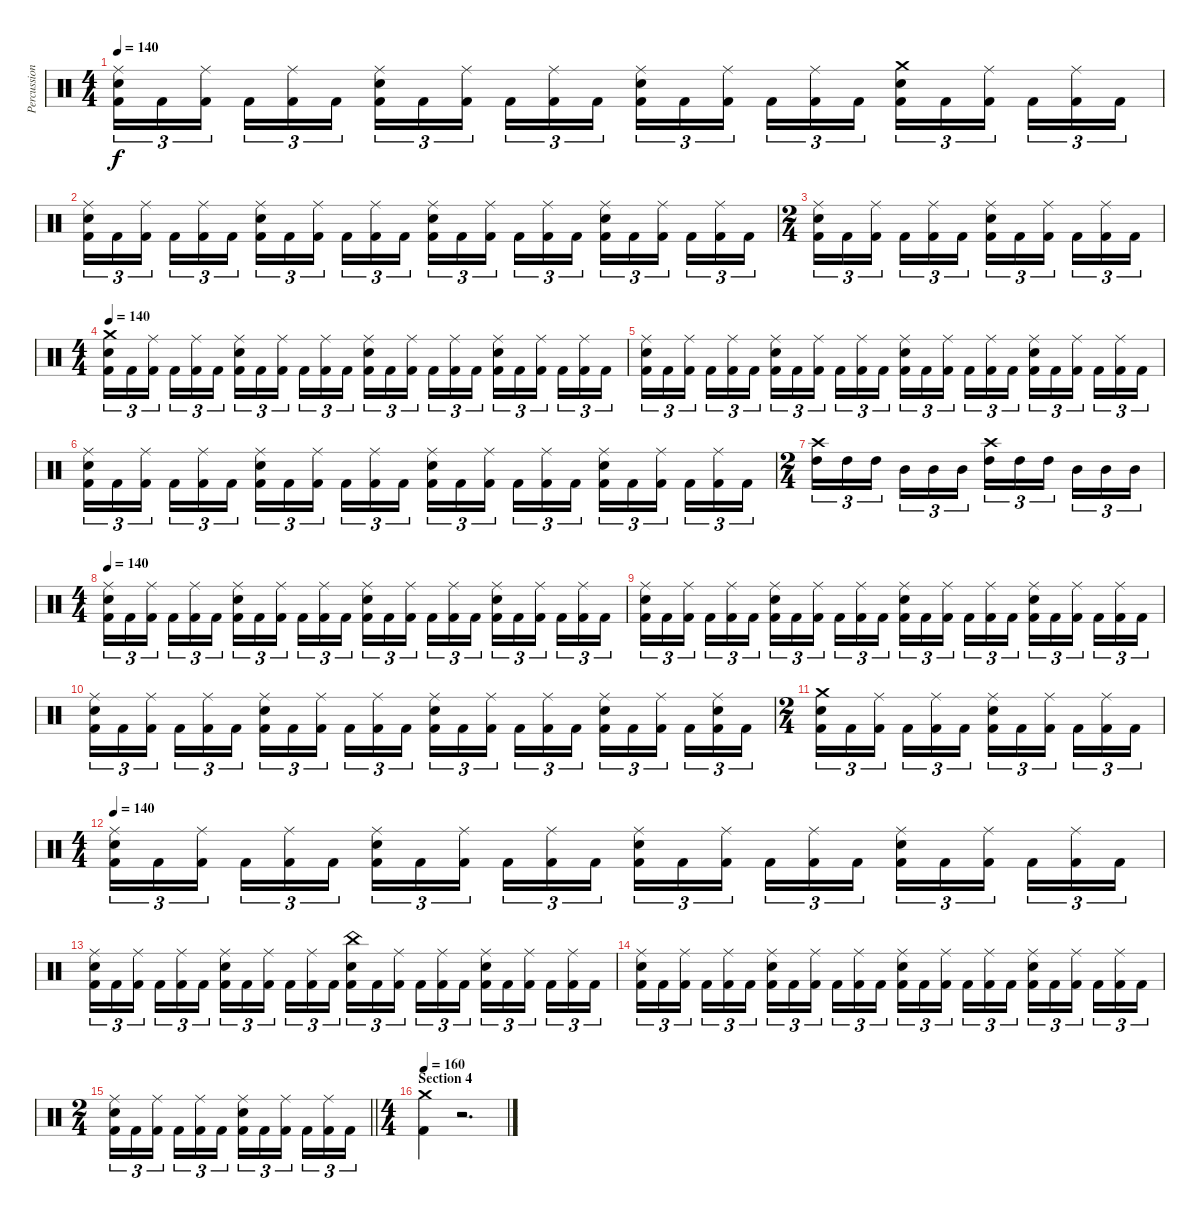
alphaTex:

\track ("Percussion" "Percussion") {instrument percussion}
\staff {score}
\articulation defaults
\ts (4 4)
\tempo 140
\clef neutral
\ks c
("Ride (middle)" "Electric Snare (hit)" "Kick (hit) 2").16{tu (3 2) dy f} "Kick (hit) 2".16{tu (3 2)} ("Ride (middle)" "Kick (hit) 2").16{tu (3 2)} "Kick (hit) 2".16{tu (3 2)} ("Ride (middle)" "Kick (hit) 2").16{tu (3 2)} "Kick (hit) 2".16{tu (3 2)} ("Ride (middle)" "Electric Snare (hit)" "Kick (hit) 2").16{tu (3 2)} "Kick (hit) 2".16{tu (3 2)} ("Ride (middle)" "Kick (hit) 2").16{tu (3 2)} "Kick (hit) 2".16{tu (3 2)} ("Ride (middle)" "Kick (hit) 2").16{tu (3 2)} "Kick (hit) 2".16{tu (3 2)} ("Ride (middle)" "Electric Snare (hit)" "Kick (hit) 2").16{tu (3 2)} "Kick (hit) 2".16{tu (3 2)} ("Ride (middle)" "Kick (hit) 2").16{tu (3 2)} "Kick (hit) 2".16{tu (3 2)} ("Ride (middle)" "Kick (hit) 2").16{tu (3 2)} "Kick (hit) 2".16{tu (3 2)} ("Crash medium (hit)" "Electric Snare (hit)" "Kick (hit) 2").16{tu (3 2)} "Kick (hit) 2".16{tu (3 2)} ("Ride (middle)" "Kick (hit) 2").16{tu (3 2)} "Kick (hit) 2".16{tu (3 2)} ("Ride (middle)" "Kick (hit) 2").16{tu (3 2)} "Kick (hit) 2".16{tu (3 2)} |
("Ride (middle)" "Electric Snare (hit)" "Kick (hit) 2").16{tu (3 2)} "Kick (hit) 2".16{tu (3 2)} ("Ride (middle)" "Kick (hit) 2").16{tu (3 2)} "Kick (hit) 2".16{tu (3 2)} ("Ride (middle)" "Kick (hit) 2").16{tu (3 2)} "Kick (hit) 2".16{tu (3 2)} ("Ride (middle)" "Electric Snare (hit)" "Kick (hit) 2").16{tu (3 2)} "Kick (hit) 2".16{tu (3 2)} ("Ride (middle)" "Kick (hit) 2").16{tu (3 2)} "Kick (hit) 2".16{tu (3 2)} ("Ride (middle)" "Kick (hit) 2").16{tu (3 2)} "Kick (hit) 2".16{tu (3 2)} ("Ride (middle)" "Electric Snare (hit)" "Kick (hit) 2").16{tu (3 2)} "Kick (hit) 2".16{tu (3 2)} ("Ride (middle)" "Kick (hit) 2").16{tu (3 2)} "Kick (hit) 2".16{tu (3 2)} ("Ride (middle)" "Kick (hit) 2").16{tu (3 2)} "Kick (hit) 2".16{tu (3 2)} ("Ride (middle)" "Electric Snare (hit)" "Kick (hit) 2").16{tu (3 2)} "Kick (hit) 2".16{tu (3 2)} ("Ride (middle)" "Kick (hit) 2").16{tu (3 2)} "Kick (hit) 2".16{tu (3 2)} ("Ride (middle)" "Kick (hit) 2").16{tu (3 2)} "Kick (hit) 2".16{tu (3 2)} |
\ts (2 4)
("Ride (middle)" "Electric Snare (hit)" "Kick (hit) 2").16{tu (3 2)} "Kick (hit) 2".16{tu (3 2)} ("Ride (middle)" "Kick (hit) 2").16{tu (3 2)} "Kick (hit) 2".16{tu (3 2)} ("Ride (middle)" "Kick (hit) 2").16{tu (3 2)} "Kick (hit) 2".16{tu (3 2)} ("Ride (middle)" "Electric Snare (hit)" "Kick (hit) 2").16{tu (3 2)} "Kick (hit) 2".16{tu (3 2)} ("Ride (middle)" "Kick (hit) 2").16{tu (3 2)} "Kick (hit) 2".16{tu (3 2)} ("Ride (middle)" "Kick (hit) 2").16{tu (3 2)} "Kick (hit) 2".16{tu (3 2)} |
\ts (4 4)
\tempo 140
("Crash medium (hit)" "Electric Snare (hit)" "Kick (hit) 2").16{tu (3 2)} "Kick (hit) 2".16{tu (3 2)} ("Ride (middle)" "Kick (hit) 2").16{tu (3 2)} "Kick (hit) 2".16{tu (3 2)} ("Ride (middle)" "Kick (hit) 2").16{tu (3 2)} "Kick (hit) 2".16{tu (3 2)} ("Ride (middle)" "Electric Snare (hit)" "Kick (hit) 2").16{tu (3 2)} "Kick (hit) 2".16{tu (3 2)} ("Ride (middle)" "Kick (hit) 2").16{tu (3 2)} "Kick (hit) 2".16{tu (3 2)} ("Ride (middle)" "Kick (hit) 2").16{tu (3 2)} "Kick (hit) 2".16{tu (3 2)} ("Ride (middle)" "Electric Snare (hit)" "Kick (hit) 2").16{tu (3 2)} "Kick (hit) 2".16{tu (3 2)} ("Ride (middle)" "Kick (hit) 2").16{tu (3 2)} "Kick (hit) 2".16{tu (3 2)} ("Ride (middle)" "Kick (hit) 2").16{tu (3 2)} "Kick (hit) 2".16{tu (3 2)} ("Ride (middle)" "Electric Snare (hit)" "Kick (hit) 2").16{tu (3 2)} "Kick (hit) 2".16{tu (3 2)} ("Ride (middle)" "Kick (hit) 2").16{tu (3 2)} "Kick (hit) 2".16{tu (3 2)} ("Ride (middle)" "Kick (hit) 2").16{tu (3 2)} "Kick (hit) 2".16{tu (3 2)} |
("Ride (middle)" "Electric Snare (hit)" "Kick (hit) 2").16{tu (3 2)} "Kick (hit) 2".16{tu (3 2)} ("Ride (middle)" "Kick (hit) 2").16{tu (3 2)} "Kick (hit) 2".16{tu (3 2)} ("Ride (middle)" "Kick (hit) 2").16{tu (3 2)} "Kick (hit) 2".16{tu (3 2)} ("Ride (middle)" "Electric Snare (hit)" "Kick (hit) 2").16{tu (3 2)} "Kick (hit) 2".16{tu (3 2)} ("Ride (middle)" "Kick (hit) 2").16{tu (3 2)} "Kick (hit) 2".16{tu (3 2)} ("Ride (middle)" "Kick (hit) 2").16{tu (3 2)} "Kick (hit) 2".16{tu (3 2)} ("Ride (middle)" "Electric Snare (hit)" "Kick (hit) 2").16{tu (3 2)} "Kick (hit) 2".16{tu (3 2)} ("Ride (middle)" "Kick (hit) 2").16{tu (3 2)} "Kick (hit) 2".16{tu (3 2)} ("Ride (middle)" "Kick (hit) 2").16{tu (3 2)} "Kick (hit) 2".16{tu (3 2)} ("Ride (middle)" "Electric Snare (hit)" "Kick (hit) 2").16{tu (3 2)} "Kick (hit) 2".16{tu (3 2)} ("Ride (middle)" "Kick (hit) 2").16{tu (3 2)} "Kick (hit) 2".16{tu (3 2)} ("Ride (middle)" "Kick (hit) 2").16{tu (3 2)} "Kick (hit) 2".16{tu (3 2)} |
("Ride (middle)" "Electric Snare (hit)" "Kick (hit) 2").16{tu (3 2)} "Kick (hit) 2".16{tu (3 2)} ("Ride (middle)" "Kick (hit) 2").16{tu (3 2)} "Kick (hit) 2".16{tu (3 2)} ("Ride (middle)" "Kick (hit) 2").16{tu (3 2)} "Kick (hit) 2".16{tu (3 2)} ("Ride (middle)" "Electric Snare (hit)" "Kick (hit) 2").16{tu (3 2)} "Kick (hit) 2".16{tu (3 2)} ("Ride (middle)" "Kick (hit) 2").16{tu (3 2)} "Kick (hit) 2".16{tu (3 2)} ("Ride (middle)" "Kick (hit) 2").16{tu (3 2)} "Kick (hit) 2".16{tu (3 2)} ("Ride (middle)" "Electric Snare (hit)" "Kick (hit) 2").16{tu (3 2)} "Kick (hit) 2".16{tu (3 2)} ("Ride (middle)" "Kick (hit) 2").16{tu (3 2)} "Kick (hit) 2".16{tu (3 2)} ("Ride (middle)" "Kick (hit) 2").16{tu (3 2)} "Kick (hit) 2".16{tu (3 2)} ("Ride (middle)" "Electric Snare (hit)" "Kick (hit) 2").16{tu (3 2)} "Kick (hit) 2".16{tu (3 2)} ("Ride (middle)" "Kick (hit) 2").16{tu (3 2)} "Kick (hit) 2".16{tu (3 2)} ("Ride (middle)" "Kick (hit) 2").16{tu (3 2)} "Kick (hit) 2".16{tu (3 2)} |
\ts (2 4)
("Crash high (hit)" "High Tom (hit)").16{tu (3 2)} "High Tom (hit)".16{tu (3 2)} "High Tom (hit)".16{tu (3 2)} "Mid Tom (hit)".16{tu (3 2)} "Mid Tom (hit)".16{tu (3 2)} "Mid Tom (hit)".16{tu (3 2)} ("Crash high (hit)" "High Tom (hit)").16{tu (3 2)} "High Tom (hit)".16{tu (3 2)} "High Tom (hit)".16{tu (3 2)} "Mid Tom (hit)".16{tu (3 2)} "Mid Tom (hit)".16{tu (3 2)} "Mid Tom (hit)".16{tu (3 2)} |
\ts (4 4)
\tempo 140
("Ride (middle)" "Electric Snare (hit)" "Kick (hit) 2").16{tu (3 2)} "Kick (hit) 2".16{tu (3 2)} ("Ride (middle)" "Kick (hit) 2").16{tu (3 2)} "Kick (hit) 2".16{tu (3 2)} ("Ride (middle)" "Kick (hit) 2").16{tu (3 2)} "Kick (hit) 2".16{tu (3 2)} ("Ride (middle)" "Electric Snare (hit)" "Kick (hit) 2").16{tu (3 2)} "Kick (hit) 2".16{tu (3 2)} ("Ride (middle)" "Kick (hit) 2").16{tu (3 2)} "Kick (hit) 2".16{tu (3 2)} ("Ride (middle)" "Kick (hit) 2").16{tu (3 2)} "Kick (hit) 2".16{tu (3 2)} ("Ride (middle)" "Electric Snare (hit)" "Kick (hit) 2").16{tu (3 2)} "Kick (hit) 2".16{tu (3 2)} ("Ride (middle)" "Kick (hit) 2").16{tu (3 2)} "Kick (hit) 2".16{tu (3 2)} ("Ride (middle)" "Kick (hit) 2").16{tu (3 2)} "Kick (hit) 2".16{tu (3 2)} ("Ride (middle)" "Electric Snare (hit)" "Kick (hit) 2").16{tu (3 2)} "Kick (hit) 2".16{tu (3 2)} ("Ride (middle)" "Kick (hit) 2").16{tu (3 2)} "Kick (hit) 2".16{tu (3 2)} ("Ride (middle)" "Kick (hit) 2").16{tu (3 2)} "Kick (hit) 2".16{tu (3 2)} |
("Ride (middle)" "Electric Snare (hit)" "Kick (hit) 2").16{tu (3 2)} "Kick (hit) 2".16{tu (3 2)} ("Ride (middle)" "Kick (hit) 2").16{tu (3 2)} "Kick (hit) 2".16{tu (3 2)} ("Ride (middle)" "Kick (hit) 2").16{tu (3 2)} "Kick (hit) 2".16{tu (3 2)} ("Ride (middle)" "Electric Snare (hit)" "Kick (hit) 2").16{tu (3 2)} "Kick (hit) 2".16{tu (3 2)} ("Ride (middle)" "Kick (hit) 2").16{tu (3 2)} "Kick (hit) 2".16{tu (3 2)} ("Ride (middle)" "Kick (hit) 2").16{tu (3 2)} "Kick (hit) 2".16{tu (3 2)} ("Ride (middle)" "Electric Snare (hit)" "Kick (hit) 2").16{tu (3 2)} "Kick (hit) 2".16{tu (3 2)} ("Ride (middle)" "Kick (hit) 2").16{tu (3 2)} "Kick (hit) 2".16{tu (3 2)} ("Ride (middle)" "Kick (hit) 2").16{tu (3 2)} "Kick (hit) 2".16{tu (3 2)} ("Ride (middle)" "Electric Snare (hit)" "Kick (hit) 2").16{tu (3 2)} "Kick (hit) 2".16{tu (3 2)} ("Ride (middle)" "Kick (hit) 2").16{tu (3 2)} "Kick (hit) 2".16{tu (3 2)} ("Ride (middle)" "Kick (hit) 2").16{tu (3 2)} "Kick (hit) 2".16{tu (3 2)} |
("Ride (middle)" "Electric Snare (hit)" "Kick (hit) 2").16{tu (3 2)} "Kick (hit) 2".16{tu (3 2)} ("Ride (middle)" "Kick (hit) 2").16{tu (3 2)} "Kick (hit) 2".16{tu (3 2)} ("Ride (middle)" "Kick (hit) 2").16{tu (3 2)} "Kick (hit) 2".16{tu (3 2)} ("Ride (middle)" "Electric Snare (hit)" "Kick (hit) 2").16{tu (3 2)} "Kick (hit) 2".16{tu (3 2)} ("Ride (middle)" "Kick (hit) 2").16{tu (3 2)} "Kick (hit) 2".16{tu (3 2)} ("Ride (middle)" "Kick (hit) 2").16{tu (3 2)} "Kick (hit) 2".16{tu (3 2)} ("Ride (middle)" "Electric Snare (hit)" "Kick (hit) 2").16{tu (3 2)} "Kick (hit) 2".16{tu (3 2)} ("Ride (middle)" "Kick (hit) 2").16{tu (3 2)} "Kick (hit) 2".16{tu (3 2)} ("Ride (middle)" "Kick (hit) 2").16{tu (3 2)} "Kick (hit) 2".16{tu (3 2)} ("Ride (middle)" "Electric Snare (hit)" "Kick (hit) 2").16{tu (3 2)} "Kick (hit) 2".16{tu (3 2)} ("Ride (middle)" "Kick (hit) 2").16{tu (3 2)} "Kick (hit) 2".16{tu (3 2)} ("Ride (middle)" "Electric Snare (hit)" "Kick (hit) 2").16{tu (3 2)} "Kick (hit) 2".16{tu (3 2)} |
\ts (2 4)
("Crash medium (hit)" "Electric Snare (hit)" "Kick (hit) 2").16{tu (3 2)} "Kick (hit) 2".16{tu (3 2)} ("Ride (middle)" "Kick (hit) 2").16{tu (3 2)} "Kick (hit) 2".16{tu (3 2)} ("Ride (middle)" "Kick (hit) 2").16{tu (3 2)} "Kick (hit) 2".16{tu (3 2)} ("Ride (middle)" "Electric Snare (hit)" "Kick (hit) 2").16{tu (3 2)} "Kick (hit) 2".16{tu (3 2)} ("Ride (middle)" "Kick (hit) 2").16{tu (3 2)} "Kick (hit) 2".16{tu (3 2)} ("Ride (middle)" "Kick (hit) 2").16{tu (3 2)} "Kick (hit) 2".16{tu (3 2)} |
\ts (4 4)
\tempo 140
("Ride (middle)" "Electric Snare (hit)" "Kick (hit) 2").16{tu (3 2)} "Kick (hit) 2".16{tu (3 2)} ("Ride (middle)" "Kick (hit) 2").16{tu (3 2)} "Kick (hit) 2".16{tu (3 2)} ("Ride (middle)" "Kick (hit) 2").16{tu (3 2)} "Kick (hit) 2".16{tu (3 2)} ("Ride (middle)" "Electric Snare (hit)" "Kick (hit) 2").16{tu (3 2)} "Kick (hit) 2".16{tu (3 2)} ("Ride (middle)" "Kick (hit) 2").16{tu (3 2)} "Kick (hit) 2".16{tu (3 2)} ("Ride (middle)" "Kick (hit) 2").16{tu (3 2)} "Kick (hit) 2".16{tu (3 2)} ("Ride (middle)" "Electric Snare (hit)" "Kick (hit) 2").16{tu (3 2)} "Kick (hit) 2".16{tu (3 2)} ("Ride (middle)" "Kick (hit) 2").16{tu (3 2)} "Kick (hit) 2".16{tu (3 2)} ("Ride (middle)" "Kick (hit) 2").16{tu (3 2)} "Kick (hit) 2".16{tu (3 2)} ("Ride (middle)" "Electric Snare (hit)" "Kick (hit) 2").16{tu (3 2)} "Kick (hit) 2".16{tu (3 2)} ("Ride (middle)" "Kick (hit) 2").16{tu (3 2)} "Kick (hit) 2".16{tu (3 2)} ("Ride (middle)" "Kick (hit) 2").16{tu (3 2)} "Kick (hit) 2".16{tu (3 2)} |
("Ride (middle)" "Electric Snare (hit)" "Kick (hit) 2").16{tu (3 2)} "Kick (hit) 2".16{tu (3 2)} ("Ride (middle)" "Kick (hit) 2").16{tu (3 2)} "Kick (hit) 2".16{tu (3 2)} ("Ride (middle)" "Kick (hit) 2").16{tu (3 2)} "Kick (hit) 2".16{tu (3 2)} ("Ride (middle)" "Electric Snare (hit)" "Kick (hit) 2").16{tu (3 2)} "Kick (hit) 2".16{tu (3 2)} ("Ride (middle)" "Kick (hit) 2").16{tu (3 2)} "Kick (hit) 2".16{tu (3 2)} ("Ride (middle)" "Kick (hit) 2").16{tu (3 2)} "Kick (hit) 2".16{tu (3 2)} ("China (hit)" "Electric Snare (hit)" "Kick (hit) 2").16{tu (3 2)} "Kick (hit) 2".16{tu (3 2)} ("Ride (middle)" "Kick (hit) 2").16{tu (3 2)} "Kick (hit) 2".16{tu (3 2)} ("Ride (middle)" "Kick (hit) 2").16{tu (3 2)} "Kick (hit) 2".16{tu (3 2)} ("Ride (middle)" "Electric Snare (hit)" "Kick (hit) 2").16{tu (3 2)} "Kick (hit) 2".16{tu (3 2)} ("Ride (middle)" "Kick (hit) 2").16{tu (3 2)} "Kick (hit) 2".16{tu (3 2)} ("Ride (middle)" "Kick (hit) 2").16{tu (3 2)} "Kick (hit) 2".16{tu (3 2)} |
("Ride (middle)" "Electric Snare (hit)" "Kick (hit) 2").16{tu (3 2)} "Kick (hit) 2".16{tu (3 2)} ("Ride (middle)" "Kick (hit) 2").16{tu (3 2)} "Kick (hit) 2".16{tu (3 2)} ("Ride (middle)" "Kick (hit) 2").16{tu (3 2)} "Kick (hit) 2".16{tu (3 2)} ("Ride (middle)" "Electric Snare (hit)" "Kick (hit) 2").16{tu (3 2)} "Kick (hit) 2".16{tu (3 2)} ("Ride (middle)" "Kick (hit) 2").16{tu (3 2)} "Kick (hit) 2".16{tu (3 2)} ("Ride (middle)" "Kick (hit) 2").16{tu (3 2)} "Kick (hit) 2".16{tu (3 2)} ("Ride (middle)" "Electric Snare (hit)" "Kick (hit) 2").16{tu (3 2)} "Kick (hit) 2".16{tu (3 2)} ("Ride (middle)" "Kick (hit) 2").16{tu (3 2)} "Kick (hit) 2".16{tu (3 2)} ("Ride (middle)" "Kick (hit) 2").16{tu (3 2)} "Kick (hit) 2".16{tu (3 2)} ("Ride (middle)" "Electric Snare (hit)" "Kick (hit) 2").16{tu (3 2)} "Kick (hit) 2".16{tu (3 2)} ("Ride (middle)" "Kick (hit) 2").16{tu (3 2)} "Kick (hit) 2".16{tu (3 2)} ("Ride (middle)" "Kick (hit) 2").16{tu (3 2)} "Kick (hit) 2".16{tu (3 2)} |
\ts (2 4)
\barLineRight lightlight
("Ride (middle)" "Electric Snare (hit)" "Kick (hit) 2").16{tu (3 2)} "Kick (hit) 2".16{tu (3 2)} ("Ride (middle)" "Kick (hit) 2").16{tu (3 2)} "Kick (hit) 2".16{tu (3 2)} ("Ride (middle)" "Kick (hit) 2").16{tu (3 2)} "Kick (hit) 2".16{tu (3 2)} ("Ride (middle)" "Electric Snare (hit)" "Kick (hit) 2").16{tu (3 2)} "Kick (hit) 2".16{tu (3 2)} ("Ride (middle)" "Kick (hit) 2").16{tu (3 2)} "Kick (hit) 2".16{tu (3 2)} ("Ride (middle)" "Kick (hit) 2").16{tu (3 2)} "Kick (hit) 2".16{tu (3 2)} |
\ts (4 4)
\section ("" "Section 4")
\tempo 160
("Crash medium (hit)" "Kick (hit) 2").4 r.2{d}
